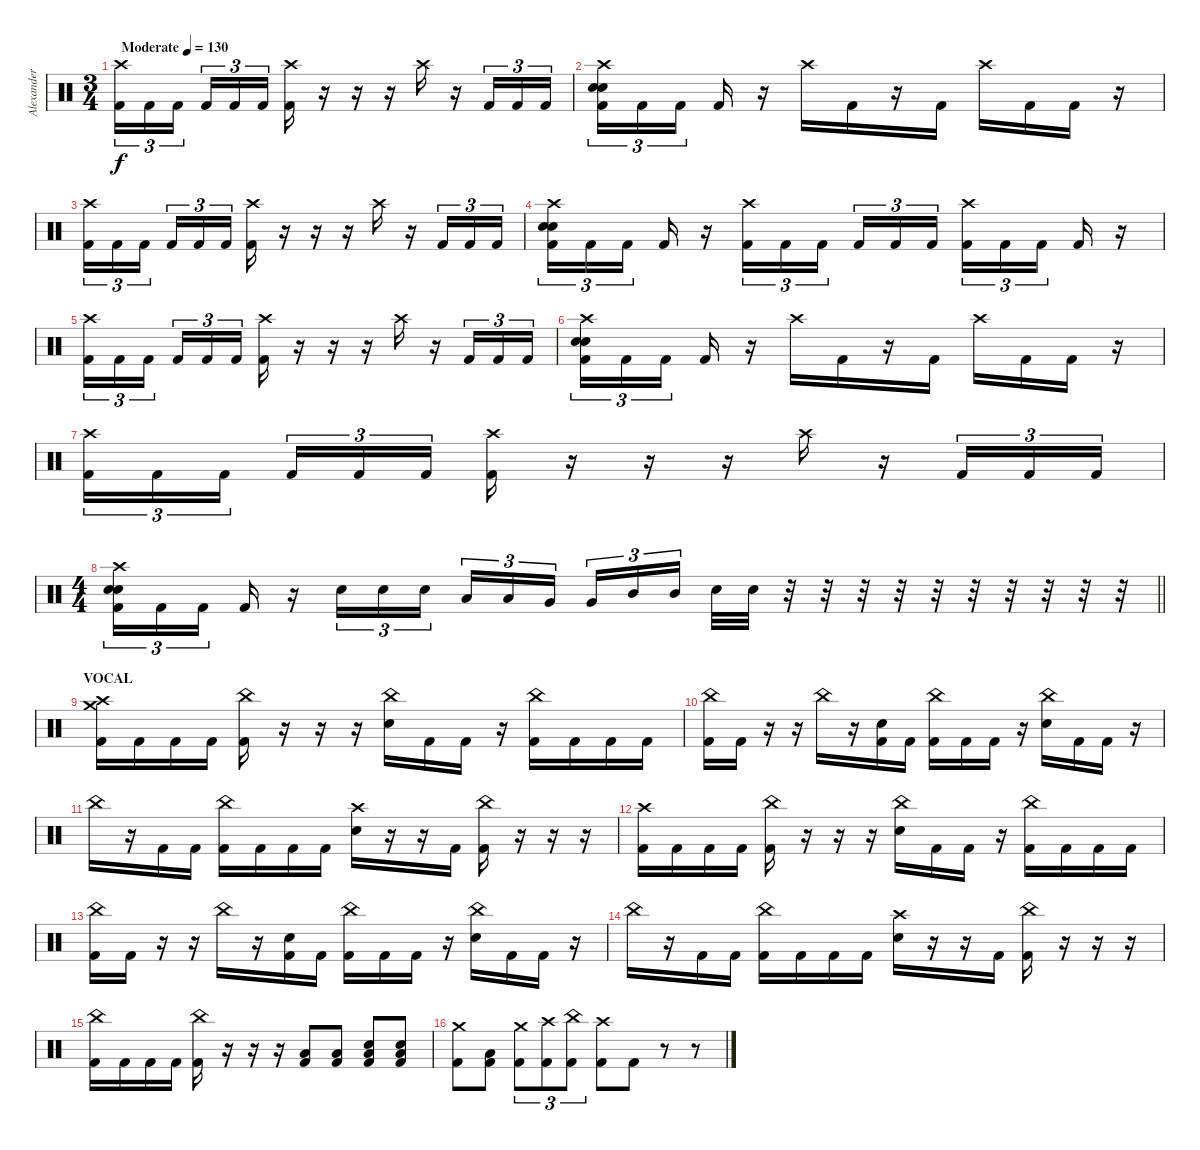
\track ("Alexander Yazykov" "Alexander ") {instrument percussion}
\staff {score}
\articulation defaults
\ts (3 4)
\tempo (130 "Moderate")
\clef neutral
\ks c
("Crash high (hit)" "Kick (hit) 2").16{tu (3 2) dy f} "Kick (hit) 2".16{tu (3 2)} "Kick (hit) 2".16{tu (3 2) beam splitsecondary} "Kick (hit) 2".16{tu (3 2)} "Kick (hit) 2".16{tu (3 2)} "Kick (hit) 2".16{tu (3 2)} ("Crash high (hit)" "Kick (hit) 2").16 r.16 r.16 r.16 "Crash high (hit)".16 r.16 "Kick (hit) 2".16{tu (3 2)} "Kick (hit) 2".16{tu (3 2)} "Kick (hit) 2".16{tu (3 2)} |
("Crash high (hit)" "Snare (hit)" "Electric Snare (hit)" "Kick (hit) 2").16{tu (3 2)} "Kick (hit) 2".16{tu (3 2)} "Kick (hit) 2".16{tu (3 2) beam splitsecondary} "Kick (hit) 2".16 r.16 "Crash high (hit)".16 "Kick (hit) 2".16 r.16 "Kick (hit) 2".16 "Crash high (hit)".16 "Kick (hit) 2".16 "Kick (hit) 2".16 r.16 |
("Crash high (hit)" "Kick (hit) 2").16{tu (3 2)} "Kick (hit) 2".16{tu (3 2)} "Kick (hit) 2".16{tu (3 2) beam splitsecondary} "Kick (hit) 2".16{tu (3 2)} "Kick (hit) 2".16{tu (3 2)} "Kick (hit) 2".16{tu (3 2)} ("Crash high (hit)" "Kick (hit) 2").16 r.16 r.16 r.16 "Crash high (hit)".16 r.16 "Kick (hit) 2".16{tu (3 2)} "Kick (hit) 2".16{tu (3 2)} "Kick (hit) 2".16{tu (3 2)} |
("Crash high (hit)" "Snare (hit)" "Electric Snare (hit)" "Kick (hit) 2").16{tu (3 2)} "Kick (hit) 2".16{tu (3 2)} "Kick (hit) 2".16{tu (3 2) beam splitsecondary} "Kick (hit) 2".16 r.16 ("Crash high (hit)" "Kick (hit) 2").16{tu (3 2)} "Kick (hit) 2".16{tu (3 2)} "Kick (hit) 2".16{tu (3 2) beam splitsecondary} "Kick (hit) 2".16{tu (3 2)} "Kick (hit) 2".16{tu (3 2)} "Kick (hit) 2".16{tu (3 2)} ("Crash high (hit)" "Kick (hit) 2").16{tu (3 2)} "Kick (hit) 2".16{tu (3 2)} "Kick (hit) 2".16{tu (3 2) beam splitsecondary} "Kick (hit) 2".16 r.16 |
("Crash high (hit)" "Kick (hit) 2").16{tu (3 2)} "Kick (hit) 2".16{tu (3 2)} "Kick (hit) 2".16{tu (3 2) beam splitsecondary} "Kick (hit) 2".16{tu (3 2)} "Kick (hit) 2".16{tu (3 2)} "Kick (hit) 2".16{tu (3 2)} ("Crash high (hit)" "Kick (hit) 2").16 r.16 r.16 r.16 "Crash high (hit)".16 r.16 "Kick (hit) 2".16{tu (3 2)} "Kick (hit) 2".16{tu (3 2)} "Kick (hit) 2".16{tu (3 2)} |
("Crash high (hit)" "Snare (hit)" "Electric Snare (hit)" "Kick (hit) 2").16{tu (3 2)} "Kick (hit) 2".16{tu (3 2)} "Kick (hit) 2".16{tu (3 2) beam splitsecondary} "Kick (hit) 2".16 r.16 "Crash high (hit)".16 "Kick (hit) 2".16 r.16 "Kick (hit) 2".16 "Crash high (hit)".16 "Kick (hit) 2".16 "Kick (hit) 2".16 r.16 |
("Crash high (hit)" "Kick (hit) 2").16{tu (3 2)} "Kick (hit) 2".16{tu (3 2)} "Kick (hit) 2".16{tu (3 2) beam splitsecondary} "Kick (hit) 2".16{tu (3 2)} "Kick (hit) 2".16{tu (3 2)} "Kick (hit) 2".16{tu (3 2)} ("Crash high (hit)" "Kick (hit) 2").16 r.16 r.16 r.16 "Crash high (hit)".16 r.16 "Kick (hit) 2".16{tu (3 2)} "Kick (hit) 2".16{tu (3 2)} "Kick (hit) 2".16{tu (3 2)} |
\ts (4 4)
\barLineRight lightlight
("Crash high (hit)" "Snare (hit)" "Electric Snare (hit)" "Kick (hit) 2").16{tu (3 2)} "Kick (hit) 2".16{tu (3 2)} "Kick (hit) 2".16{tu (3 2) beam splitsecondary} "Kick (hit) 2".16 r.16 "Electric Snare (hit)".16{tu (3 2)} "Electric Snare (hit)".16{tu (3 2)} "Electric Snare (hit)".16{tu (3 2) beam splitsecondary} "Low Tom (hit)".16{tu (3 2)} "Low Tom (hit)".16{tu (3 2)} "Very Low Tom (hit)".16{tu (3 2)} "Very Low Tom (hit)".16{tu (3 2)} "Mid Tom (hit)".16{tu (3 2)} "Mid Tom (hit)".16{tu (3 2) beam splitsecondary} "Electric Snare (hit)".32 "Electric Snare (hit)".32 r.32 r.32 r.32 r.32 r.32 r.32 r.32 r.32 r.32 r.32 |
\section ("" "VOCAL ")
("Crash high (hit)" "Crash medium (hit)" "Kick (hit) 2").16 "Kick (hit) 2".16 "Kick (hit) 2".16 "Kick (hit) 2".16 ("China (hit)" "Kick (hit) 2").16 r.16 r.16 r.16 ("China (hit)" "Electric Snare (hit)").16 "Kick (hit) 2".16 "Kick (hit) 2".16 r.16 ("China (hit)" "Kick (hit) 2").16 "Kick (hit) 2".16 "Kick (hit) 2".16 "Kick (hit) 2".16 |
("China (hit)" "Kick (hit) 2").16 "Kick (hit) 2".16 r.16 r.16 "China (hit)".16 r.16 ("Electric Snare (hit)" "Kick (hit) 2").16 "Kick (hit) 2".16 ("China (hit)" "Kick (hit) 2").16 "Kick (hit) 2".16 "Kick (hit) 2".16 r.16 ("China (hit)" "Electric Snare (hit)").16 "Kick (hit) 2".16 "Kick (hit) 2".16 r.16 |
"China (hit)".16 r.16 "Kick (hit) 2".16 "Kick (hit) 2".16 ("China (hit)" "Kick (hit) 2").16 "Kick (hit) 2".16 "Kick (hit) 2".16 "Kick (hit) 2".16 ("Crash high (hit)" "Electric Snare (hit)").16 r.16 r.16 "Kick (hit) 2".16 ("China (hit)" "Kick (hit) 2").16 r.16 r.16 r.16 |
("Crash high (hit)" "Kick (hit) 2").16 "Kick (hit) 2".16 "Kick (hit) 2".16 "Kick (hit) 2".16 ("China (hit)" "Kick (hit) 2").16 r.16 r.16 r.16 ("China (hit)" "Electric Snare (hit)").16 "Kick (hit) 2".16 "Kick (hit) 2".16 r.16 ("China (hit)" "Kick (hit) 2").16 "Kick (hit) 2".16 "Kick (hit) 2".16 "Kick (hit) 2".16 |
("China (hit)" "Kick (hit) 2").16 "Kick (hit) 2".16 r.16 r.16 "China (hit)".16 r.16 ("Electric Snare (hit)" "Kick (hit) 2").16 "Kick (hit) 2".16 ("China (hit)" "Kick (hit) 2").16 "Kick (hit) 2".16 "Kick (hit) 2".16 r.16 ("China (hit)" "Electric Snare (hit)").16 "Kick (hit) 2".16 "Kick (hit) 2".16 r.16 |
"China (hit)".16 r.16 "Kick (hit) 2".16 "Kick (hit) 2".16 ("China (hit)" "Kick (hit) 2").16 "Kick (hit) 2".16 "Kick (hit) 2".16 "Kick (hit) 2".16 ("Crash high (hit)" "Electric Snare (hit)").16 r.16 r.16 "Kick (hit) 2".16 ("China (hit)" "Kick (hit) 2").16 r.16 r.16 r.16 |
("China (hit)" "Kick (hit) 2").16 "Kick (hit) 2".16 "Kick (hit) 2".16 "Kick (hit) 2".16 ("China (hit)" "Kick (hit) 2").16 r.16 r.16 r.16 ("Low Floor Tom (hit)" "Kick (hit) 2").8 ("Low Floor Tom (hit)" "Kick (hit) 2").8 ("Low Floor Tom (hit)" "Electric Snare (hit)" "Kick (hit) 2").8 ("Low Floor Tom (hit)" "Electric Snare (hit)" "Kick (hit) 2").8 |
("Crash medium (hit)" "Kick (hit) 2").8 ("Low Tom (hit)" "Kick (hit) 2").8 ("Crash medium (hit)" "Kick (hit) 2").8{tu (3 2)} ("Crash high (hit)" "Kick (hit) 2").8{tu (3 2)} ("China (hit)" "Kick (hit) 2").8{tu (3 2)} ("Crash high (hit)" "Kick (hit) 2").8 "Kick (hit) 2".8 r.8 r.8
